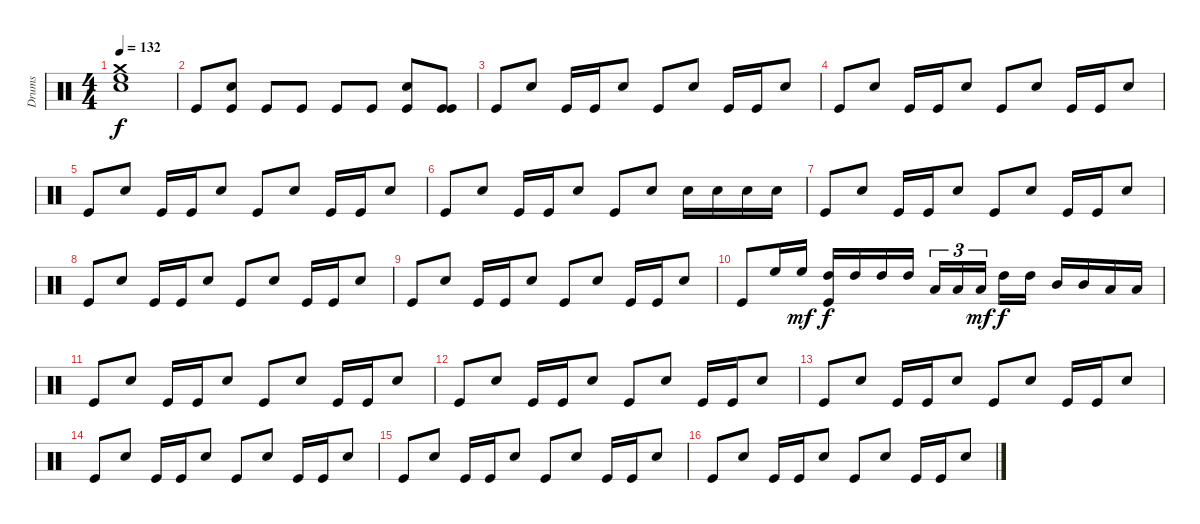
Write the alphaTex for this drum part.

\track ("Drums" "Drums") {instrument percussion}
\staff {score}
\articulation defaults
\ts (4 4)
\tempo 132
\clef neutral
\ks c
("Crash medium (hit)" "Electric Snare (hit)" "High Floor Tom (hit)").1{dy f} |
"Kick (hit)".8 ("Kick (hit)" "Electric Snare (hit)").8 "Kick (hit)".8 "Kick (hit)".8 "Kick (hit)".8 "Kick (hit)".8 ("Kick (hit)" "Electric Snare (hit)").8 ("Kick (hit)" "Kick (hit)").8 |
"Kick (hit)".8 "Electric Snare (hit)".8 "Kick (hit)".16 "Kick (hit)".16 "Electric Snare (hit)".8 "Kick (hit)".8 "Electric Snare (hit)".8 "Kick (hit)".16 "Kick (hit)".16 "Electric Snare (hit)".8 |
"Kick (hit)".8 "Electric Snare (hit)".8 "Kick (hit)".16 "Kick (hit)".16 "Electric Snare (hit)".8 "Kick (hit)".8 "Electric Snare (hit)".8 "Kick (hit)".16 "Kick (hit)".16 "Electric Snare (hit)".8 |
"Kick (hit)".8 "Electric Snare (hit)".8 "Kick (hit)".16 "Kick (hit)".16 "Electric Snare (hit)".8 "Kick (hit)".8 "Electric Snare (hit)".8 "Kick (hit)".16 "Kick (hit)".16 "Electric Snare (hit)".8 |
"Kick (hit)".8 "Electric Snare (hit)".8 "Kick (hit)".16 "Kick (hit)".16 "Electric Snare (hit)".8 "Kick (hit)".8 "Electric Snare (hit)".8 "Electric Snare (hit)".16 "Electric Snare (hit)".16 "Electric Snare (hit)".16 "Electric Snare (hit)".16 |
"Kick (hit)".8 "Electric Snare (hit)".8 "Kick (hit)".16 "Kick (hit)".16 "Electric Snare (hit)".8 "Kick (hit)".8 "Electric Snare (hit)".8 "Kick (hit)".16 "Kick (hit)".16 "Electric Snare (hit)".8 |
"Kick (hit)".8 "Electric Snare (hit)".8 "Kick (hit)".16 "Kick (hit)".16 "Electric Snare (hit)".8 "Kick (hit)".8 "Electric Snare (hit)".8 "Kick (hit)".16 "Kick (hit)".16 "Electric Snare (hit)".8 |
"Kick (hit)".8 "Electric Snare (hit)".8 "Kick (hit)".16 "Kick (hit)".16 "Electric Snare (hit)".8 "Kick (hit)".8 "Electric Snare (hit)".8 "Kick (hit)".16 "Kick (hit)".16 "Electric Snare (hit)".8 |
"Kick (hit)".8 "High Floor Tom (hit)".16 "High Floor Tom (hit)".16{dy mf} ("Kick (hit)" "High Tom (hit)").16{dy f} "High Tom (hit)".16 "High Tom (hit)".16 "High Tom (hit)".16 "Low Tom (hit)".16{tu (3 2)} "Low Tom (hit)".16{tu (3 2)} "Low Tom (hit)".16{tu (3 2) dy mf} "High Tom (hit)".16{dy f} "High Tom (hit)".16 "Mid Tom (hit)".16 "Mid Tom (hit)".16 "Low Tom (hit)".16 "Low Tom (hit)".16 |
"Kick (hit)".8 "Electric Snare (hit)".8 "Kick (hit)".16 "Kick (hit)".16 "Electric Snare (hit)".8 "Kick (hit)".8 "Electric Snare (hit)".8 "Kick (hit)".16 "Kick (hit)".16 "Electric Snare (hit)".8 |
"Kick (hit)".8 "Electric Snare (hit)".8 "Kick (hit)".16 "Kick (hit)".16 "Electric Snare (hit)".8 "Kick (hit)".8 "Electric Snare (hit)".8 "Kick (hit)".16 "Kick (hit)".16 "Electric Snare (hit)".8 |
"Kick (hit)".8 "Electric Snare (hit)".8 "Kick (hit)".16 "Kick (hit)".16 "Electric Snare (hit)".8 "Kick (hit)".8 "Electric Snare (hit)".8 "Kick (hit)".16 "Kick (hit)".16 "Electric Snare (hit)".8 |
"Kick (hit)".8 "Electric Snare (hit)".8 "Kick (hit)".16 "Kick (hit)".16 "Electric Snare (hit)".8 "Kick (hit)".8 "Electric Snare (hit)".8 "Kick (hit)".16 "Kick (hit)".16 "Electric Snare (hit)".8 |
"Kick (hit)".8 "Electric Snare (hit)".8 "Kick (hit)".16 "Kick (hit)".16 "Electric Snare (hit)".8 "Kick (hit)".8 "Electric Snare (hit)".8 "Kick (hit)".16 "Kick (hit)".16 "Electric Snare (hit)".8 |
"Kick (hit)".8 "Electric Snare (hit)".8 "Kick (hit)".16 "Kick (hit)".16 "Electric Snare (hit)".8 "Kick (hit)".8 "Electric Snare (hit)".8 "Kick (hit)".16 "Kick (hit)".16 "Electric Snare (hit)".8
